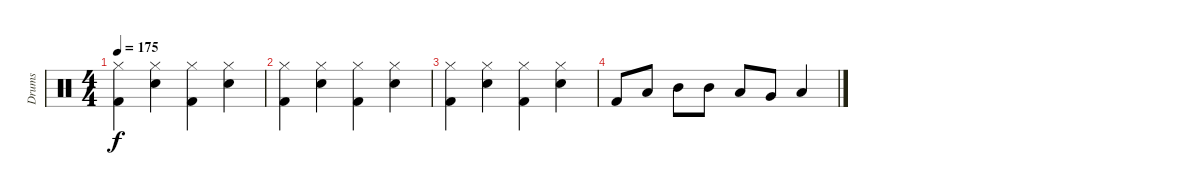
\track ("Drums" "Drums") {instrument percussion}
\staff {score}
\articulation defaults
\ts (4 4)
\tempo 175
\clef neutral
\ks c
("Kick (hit) 2" "Hi-Hat (closed)").4{dy f} ("Snare (hit) 2" "Hi-Hat (closed)").4 ("Kick (hit) 2" "Hi-Hat (closed)").4 ("Snare (hit) 2" "Hi-Hat (closed)").4 |
("Kick (hit) 2" "Hi-Hat (closed)").4 ("Snare (hit) 2" "Hi-Hat (closed)").4 ("Kick (hit) 2" "Hi-Hat (closed)").4 ("Snare (hit) 2" "Hi-Hat (closed)").4 |
("Kick (hit) 2" "Hi-Hat (closed)").4 ("Snare (hit) 2" "Hi-Hat (closed)").4 ("Kick (hit) 2" "Hi-Hat (closed)").4 ("Snare (hit) 2" "Hi-Hat (closed)").4 |
"Kick (hit) 2".8 "Low Tom (hit)".8 "Mid Tom (hit)".8 "Mid Tom (hit)".8 "Low Tom (hit)".8 "Very Low Tom (hit)".8 "Low Floor Tom (hit)".4
